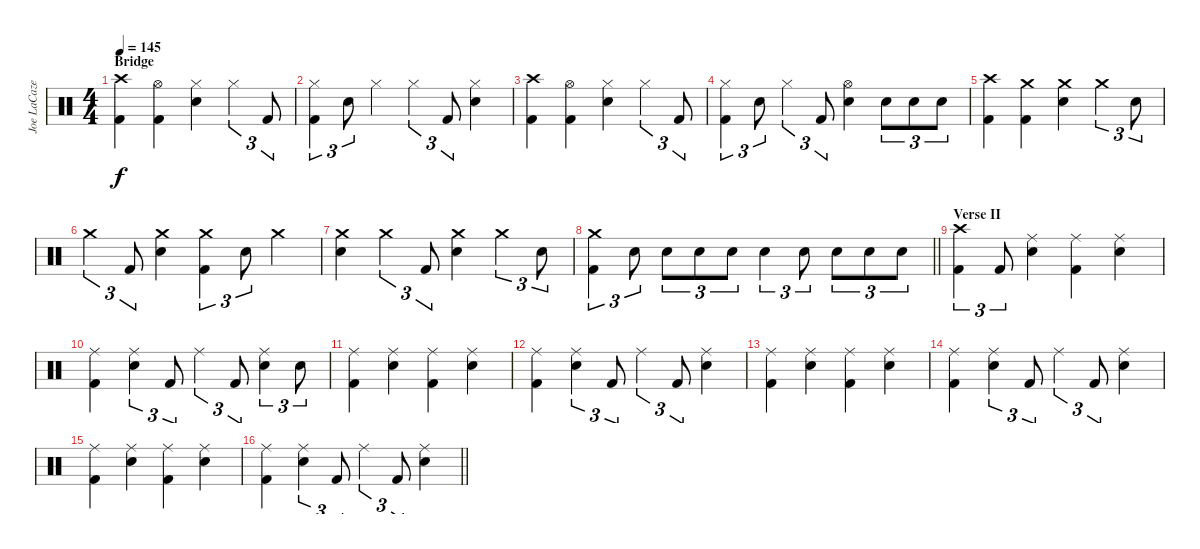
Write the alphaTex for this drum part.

\track ("Joe LaCaze" "Joe LaCaze") {instrument percussion}
\staff {score}
\articulation defaults
\ts (4 4)
\section ("" "Bridge")
\tempo 145
\clef neutral
\ks c
("Crash high (hit)" "Kick (hit) 2").4{dy f} ("Hi-Hat (open)" "Kick (hit) 2").4 ("Hi-Hat (closed)" "Electric Snare (hit)").4 "Hi-Hat (closed)".4{tu (3 2)} "Kick (hit) 2".8{tu (3 2)} |
("Hi-Hat (closed)" "Kick (hit) 2").4{tu (3 2)} "Electric Snare (hit)".8{tu (3 2)} "Hi-Hat (closed)".4 "Hi-Hat (closed)".4{tu (3 2)} "Kick (hit) 2".8{tu (3 2)} ("Hi-Hat (closed)" "Electric Snare (hit)").4 |
("Crash high (hit)" "Kick (hit) 2").4 ("Hi-Hat (open)" "Kick (hit) 2").4 ("Hi-Hat (closed)" "Electric Snare (hit)").4 "Hi-Hat (closed)".4{tu (3 2)} "Kick (hit) 2".8{tu (3 2)} |
("Hi-Hat (closed)" "Kick (hit) 2").4{tu (3 2)} "Electric Snare (hit)".8{tu (3 2)} "Hi-Hat (closed)".4{tu (3 2)} "Kick (hit) 2".8{tu (3 2)} ("Hi-Hat (open)" "Electric Snare (hit)").4 "Electric Snare (hit)".8{tu (3 2)} "Electric Snare (hit)".8{tu (3 2)} "Electric Snare (hit)".8{tu (3 2)} |
("Crash high (hit)" "Kick (hit) 2").4 ("Crash medium (hit)" "Kick (hit) 2").4 ("Crash medium (hit)" "Electric Snare (hit)").4 "Crash medium (hit)".4{tu (3 2)} "Electric Snare (hit)".8{tu (3 2)} |
"Crash medium (hit)".4{tu (3 2)} "Kick (hit) 2".8{tu (3 2)} ("Crash medium (hit)" "Electric Snare (hit)").4 ("Crash medium (hit)" "Kick (hit) 2").4{tu (3 2)} "Electric Snare (hit)".8{tu (3 2)} "Crash medium (hit)".4 |
("Crash medium (hit)" "Electric Snare (hit)").4 "Crash medium (hit)".4{tu (3 2)} "Kick (hit) 2".8{tu (3 2)} ("Crash medium (hit)" "Electric Snare (hit)").4 "Crash medium (hit)".4{tu (3 2)} "Electric Snare (hit)".8{tu (3 2)} |
\barLineRight lightlight
("Crash medium (hit)" "Kick (hit) 2").4{tu (3 2)} "Electric Snare (hit)".8{tu (3 2)} "Electric Snare (hit)".8{tu (3 2)} "Electric Snare (hit)".8{tu (3 2)} "Electric Snare (hit)".8{tu (3 2)} "Electric Snare (hit)".4{tu (3 2)} "Electric Snare (hit)".8{tu (3 2)} "Electric Snare (hit)".8{tu (3 2)} "Electric Snare (hit)".8{tu (3 2)} "Electric Snare (hit)".8{tu (3 2)} |
\section ("" "Verse II")
("Crash high (hit)" "Kick (hit) 2").4{tu (3 2)} "Kick (hit) 2".8{tu (3 2)} ("Ride (middle)" "Electric Snare (hit)").4 ("Ride (middle)" "Kick (hit) 2").4 ("Ride (middle)" "Electric Snare (hit)").4 |
("Ride (middle)" "Kick (hit) 2").4 ("Ride (middle)" "Electric Snare (hit)").4{tu (3 2)} "Kick (hit) 2".8{tu (3 2)} "Ride (middle)".4{tu (3 2)} "Kick (hit) 2".8{tu (3 2)} ("Ride (middle)" "Electric Snare (hit)").4{tu (3 2)} "Electric Snare (hit)".8{tu (3 2)} |
("Ride (middle)" "Kick (hit) 2").4 ("Ride (middle)" "Electric Snare (hit)").4 ("Ride (middle)" "Kick (hit) 2").4 ("Ride (middle)" "Electric Snare (hit)").4 |
("Ride (middle)" "Kick (hit) 2").4 ("Ride (middle)" "Electric Snare (hit)").4{tu (3 2)} "Kick (hit) 2".8{tu (3 2)} "Ride (middle)".4{tu (3 2)} "Kick (hit) 2".8{tu (3 2)} ("Ride (middle)" "Electric Snare (hit)").4 |
("Ride (middle)" "Kick (hit) 2").4 ("Ride (middle)" "Electric Snare (hit)").4 ("Ride (middle)" "Kick (hit) 2").4 ("Ride (middle)" "Electric Snare (hit)").4 |
("Ride (middle)" "Kick (hit) 2").4 ("Ride (middle)" "Electric Snare (hit)").4{tu (3 2)} "Kick (hit) 2".8{tu (3 2)} "Ride (middle)".4{tu (3 2)} "Kick (hit) 2".8{tu (3 2)} ("Ride (middle)" "Electric Snare (hit)").4 |
("Ride (middle)" "Kick (hit) 2").4 ("Ride (middle)" "Electric Snare (hit)").4 ("Ride (middle)" "Kick (hit) 2").4 ("Ride (middle)" "Electric Snare (hit)").4 |
\barLineRight lightlight
("Ride (middle)" "Kick (hit) 2").4 ("Ride (middle)" "Electric Snare (hit)").4{tu (3 2)} "Kick (hit) 2".8{tu (3 2)} "Ride (middle)".4{tu (3 2)} "Kick (hit) 2".8{tu (3 2)} ("Ride (middle)" "Electric Snare (hit)").4
